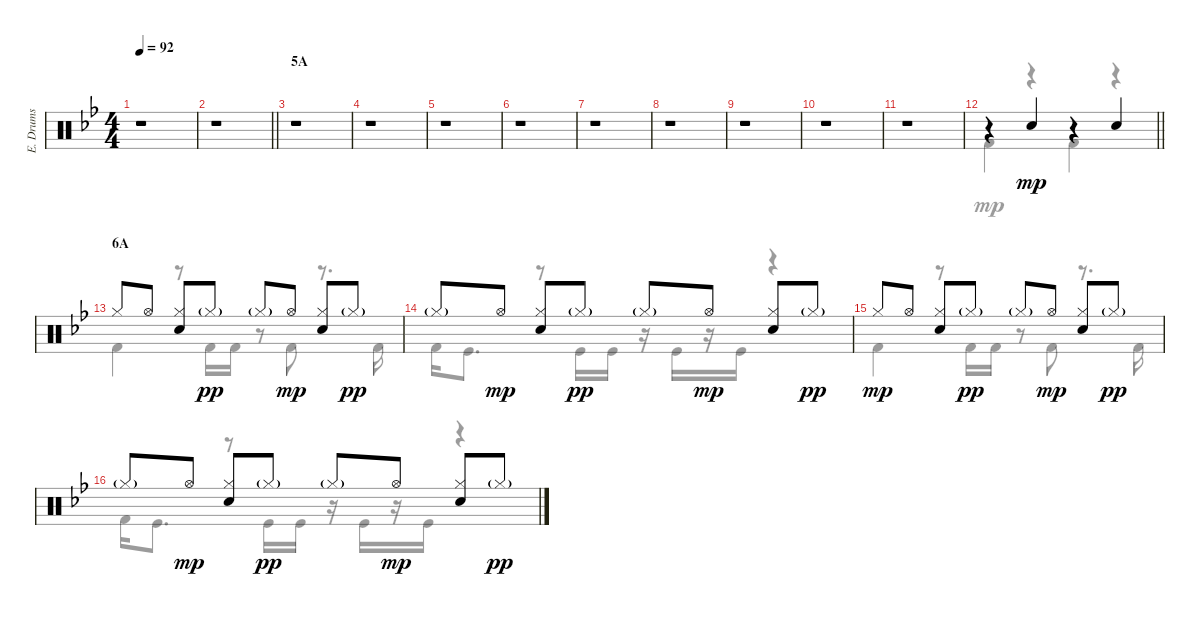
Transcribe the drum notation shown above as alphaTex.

\track ("E. Drums" "E. Drums") {instrument percussion}
\staff {score}
\articulation defaults
\voice
\ts (4 4)
\tempo 92
\clef neutral
\ks bb
r.1{dy pp} |
\barLineRight lightlight
r.1 |
\section ("" "5A")
r.1 |
r.1 |
r.1 |
r.1 |
r.1 |
r.1 |
r.1 |
r.1 |
r.1 |
\barLineRight lightlight
r.4 "Electric Snare (hit)".4{dy mp} r.4 "Electric Snare (hit)".4 |
\section ("" "6A")
"Hi-Hat (closed)".8 "Hi-Hat (open)".8 ("Hi-Hat (closed)" "Electric Snare (hit)").8 "Hi-Hat (closed)"{g}.8{dy pp} "Hi-Hat (closed)"{g}.8 "Hi-Hat (open)".8{dy mp} ("Hi-Hat (closed)" "Electric Snare (hit)").8 "Hi-Hat (closed)"{g}.8{dy pp} |
"Hi-Hat (closed)"{g}.8 "Hi-Hat (open)".8{dy mp} ("Hi-Hat (closed)" "Electric Snare (hit)").8 "Hi-Hat (closed)"{g}.8{dy pp} "Hi-Hat (closed)"{g}.8 "Hi-Hat (open)".8{dy mp} ("Hi-Hat (closed)" "Electric Snare (hit)").8 "Hi-Hat (closed)"{g}.8{dy pp} |
"Hi-Hat (closed)".8{dy mp} "Hi-Hat (open)".8 ("Hi-Hat (closed)" "Electric Snare (hit)").8 "Hi-Hat (closed)"{g}.8{dy pp} "Hi-Hat (closed)"{g}.8 "Hi-Hat (open)".8{dy mp} ("Hi-Hat (closed)" "Electric Snare (hit)").8 "Hi-Hat (closed)"{g}.8{dy pp} |
"Hi-Hat (closed)"{g}.8 "Hi-Hat (open)".8{dy mp} ("Hi-Hat (closed)" "Electric Snare (hit)").8 "Hi-Hat (closed)"{g}.8{dy pp} "Hi-Hat (closed)"{g}.8 "Hi-Hat (open)".8{dy mp} ("Hi-Hat (closed)" "Electric Snare (hit)").8 "Hi-Hat (closed)"{g}.8{dy pp}
\voice
\clef neutral
\ottava regular
\simile none
\ks bb
r.1{dy mp} |
\barLineRight lightlight
r.1 |
r.1 |
r.1 |
r.1 |
r.1 |
r.1 |
r.1 |
r.1 |
r.1 |
r.1 |
\barLineRight lightlight "Kick (hit) 2".4
r.4 "Kick (hit) 2".4 r.4 |
"Kick (hit) 2".4 r.8 "Kick (hit) 2".16 "Kick (hit) 2".16 r.8 "Kick (hit) 2".8 r.8{d} "Kick (hit) 2".16 |
"Kick (hit) 2".16 "Kick (hit)".8{d} r.8 "Kick (hit)".16 "Kick (hit)".16 r.16 "Kick (hit)".16 r.16 "Kick (hit)".16 r.4 |
"Kick (hit) 2".4 r.8 "Kick (hit) 2".16 "Kick (hit) 2".16 r.8 "Kick (hit) 2".8 r.8{d} "Kick (hit) 2".16 |
"Kick (hit) 2".16 "Kick (hit)".8{d} r.8 "Kick (hit)".16 "Kick (hit)".16 r.16 "Kick (hit)".16 r.16 "Kick (hit)".16 r.4
